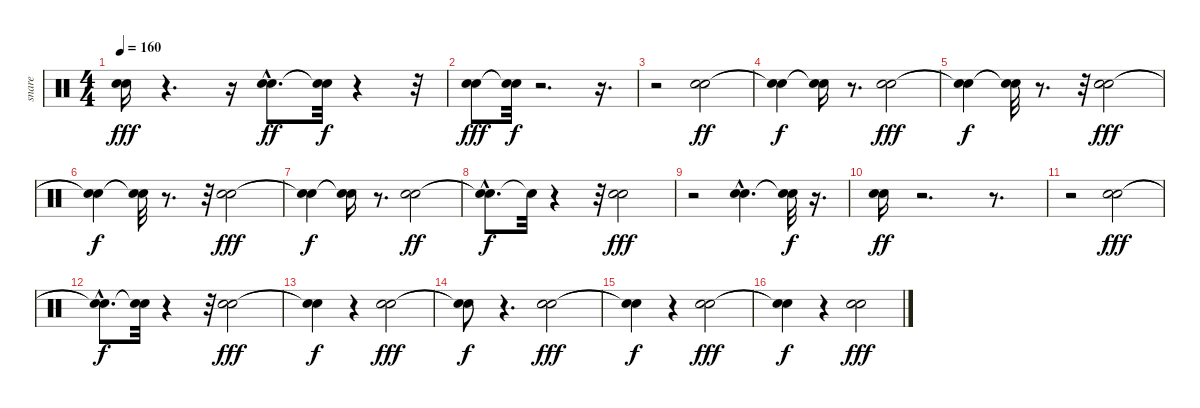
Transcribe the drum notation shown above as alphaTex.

\track ("snare" "snare") {instrument percussion}
\staff {score}
\articulation defaults
\ts (4 4)
\tempo 160
\clef neutral
\ks c
("Electric Snare (hit)" "Snare (hit) 2").16{dy fff} r.4{d} r.16 ("Electric Snare (hit)"{hac} "Snare (hit) 2"{hac}).8{d dy ff} ("Snare (hit)"{t} "Snare (hit)"{t}).32{dy f} r.4 r.32 |
("Electric Snare (hit)" "Snare (hit) 2").8{dy fff} ("Snare (hit)"{t} "Snare (hit)"{t}).32{dy f} r.2{d} r.16{d} |
r.2 ("Hand Clap (hit)" "Snare (hit) 2").2{dy ff} |
("Snare (hit)"{t} "Snare (hit)"{t}).4{dy f} ("Snare (hit)"{t} "Snare (hit)"{t}).16 r.8{d} ("Hand Clap (hit)" "Snare (hit) 2").2{dy fff} |
("Snare (hit)"{t} "Snare (hit)"{t}).4{dy f} ("Snare (hit)"{t} "Snare (hit)"{t}).32 r.8{d} r.32 ("Hand Clap (hit)" "Snare (hit) 2").2{dy fff} |
("Snare (hit)"{t} "Snare (hit)"{t}).4{dy f} ("Snare (hit)"{t} "Snare (hit)"{t}).32 r.8{d} r.32 ("Hand Clap (hit)" "Snare (hit) 2").2{dy fff} |
("Snare (hit)"{t} "Snare (hit)"{t}).4{dy f} ("Snare (hit)"{t} "Snare (hit)"{t}).16 r.8{d} ("Hand Clap (hit)" "Snare (hit) 2").2{dy ff} |
("Snare (hit)"{hac t} "Snare (hit)"{hac t}).8{d dy f} "Snare (hit)"{t}.32 r.4 r.32 ("Hand Clap (hit)" "Snare (hit) 2").2{dy fff} |
r.2 ("Hand Clap (hit)"{hac} "Snare (hit) 2"{hac}).4{d} ("Snare (hit)"{t} "Snare (hit)"{t}).32{dy f} r.16{d} |
("Hand Clap (hit)" "Snare (hit) 2").16{dy ff} r.2{d} r.8{d} |
r.2 ("Electric Snare (hit)" "Snare (hit) 2").2{dy fff} |
("Snare (hit)"{hac t} "Snare (hit)"{hac t}).8{d dy f} ("Snare (hit)"{t} "Snare (hit)"{t}).32 r.4 r.32 ("Snare (hit) 2" "Electric Snare (hit)").2{dy fff} |
("Snare (hit)"{t} "Snare (hit)"{t}).4{dy f} r.4 ("Snare (hit) 2" "Electric Snare (hit)").2{dy fff} |
("Snare (hit)"{t} "Snare (hit)"{t}).8{dy f} r.4{d} ("Snare (hit) 2" "Electric Snare (hit)").2{dy fff} |
("Snare (hit)"{t} "Snare (hit)"{t}).4{dy f} r.4 ("Snare (hit) 2" "Electric Snare (hit)").2{dy fff} |
("Snare (hit)"{t} "Snare (hit)"{t}).4{dy f} r.4 ("Electric Snare (hit)" "Snare (hit) 2").2{dy fff}
